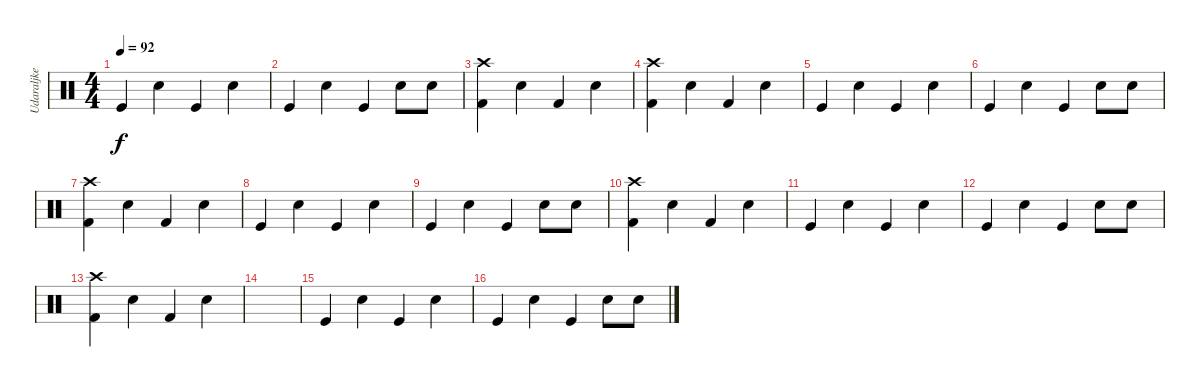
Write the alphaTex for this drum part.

\track ("Udaraljke" "Udaraljke") {instrument percussion}
\staff {score}
\articulation defaults
\ts (4 4)
\tempo 92
\clef neutral
\ks c "Kick (hit)".4{dy f} "Electric Snare (hit)".4 "Kick (hit)".4 "Electric Snare (hit)".4
|
"Kick (hit)".4 "Electric Snare (hit)".4 "Kick (hit)".4 "Electric Snare (hit)".8 "Snare (hit) 2".8 |
("Crash high (hit)" "Kick (hit) 2").4 "Electric Snare (hit)".4 "Kick (hit) 2".4 "Electric Snare (hit)".4 |
("Crash high (hit)" "Kick (hit) 2").4 "Electric Snare (hit)".4 "Kick (hit) 2".4 "Electric Snare (hit)".4 |
"Kick (hit)".4 "Electric Snare (hit)".4 "Kick (hit)".4 "Electric Snare (hit)".4 |
"Kick (hit)".4 "Electric Snare (hit)".4 "Kick (hit)".4 "Electric Snare (hit)".8 "Snare (hit) 2".8 |
("Crash high (hit)" "Kick (hit) 2").4 "Electric Snare (hit)".4 "Kick (hit) 2".4 "Electric Snare (hit)".4 |
"Kick (hit)".4 "Electric Snare (hit)".4 "Kick (hit)".4 "Electric Snare (hit)".4 |
"Kick (hit)".4 "Electric Snare (hit)".4 "Kick (hit)".4 "Electric Snare (hit)".8 "Snare (hit) 2".8 |
("Crash high (hit)" "Kick (hit) 2").4 "Electric Snare (hit)".4 "Kick (hit) 2".4 "Electric Snare (hit)".4 |
"Kick (hit)".4 "Electric Snare (hit)".4 "Kick (hit)".4 "Electric Snare (hit)".4 |
"Kick (hit)".4 "Electric Snare (hit)".4 "Kick (hit)".4 "Electric Snare (hit)".8 "Snare (hit) 2".8 |
("Crash high (hit)" "Kick (hit) 2").4 "Electric Snare (hit)".4 "Kick (hit) 2".4 "Electric Snare (hit)".4 |
|
"Kick (hit)".4 "Electric Snare (hit)".4 "Kick (hit)".4 "Electric Snare (hit)".4 |
"Kick (hit)".4 "Electric Snare (hit)".4 "Kick (hit)".4 "Electric Snare (hit)".8 "Snare (hit) 2".8
